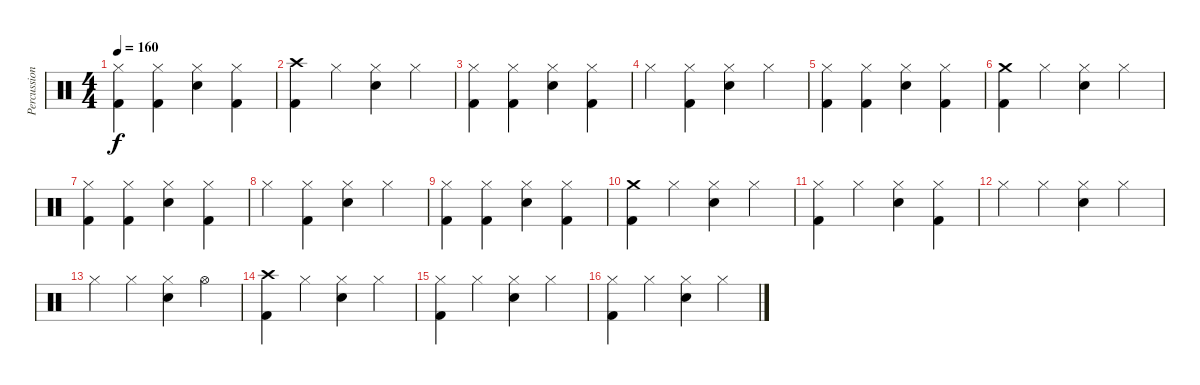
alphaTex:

\track ("Percussion" "Percussion") {instrument percussion}
\staff {score}
\articulation defaults
\ts (4 4)
\tempo 160
\clef neutral
\ks c
("Hi-Hat (closed)" "Kick (hit) 2").4{dy f} ("Hi-Hat (closed)" "Kick (hit) 2").4 ("Hi-Hat (closed)" "Snare (hit) 2").4 ("Hi-Hat (closed)" "Kick (hit) 2").4 |
("Crash high (hit)" "Kick (hit) 2").4 "Hi-Hat (closed)".4 ("Hi-Hat (closed)" "Snare (hit) 2").4 "Hi-Hat (closed)".4 |
("Hi-Hat (closed)" "Kick (hit) 2").4 ("Hi-Hat (closed)" "Kick (hit) 2").4 ("Hi-Hat (closed)" "Snare (hit) 2").4 ("Hi-Hat (closed)" "Kick (hit) 2").4 |
"Hi-Hat (closed)".4 ("Hi-Hat (closed)" "Kick (hit) 2").4 ("Hi-Hat (closed)" "Snare (hit) 2").4 "Hi-Hat (closed)".4 |
("Hi-Hat (closed)" "Kick (hit) 2").4 ("Hi-Hat (closed)" "Kick (hit) 2").4 ("Hi-Hat (closed)" "Snare (hit) 2").4 ("Hi-Hat (closed)" "Kick (hit) 2").4 |
("Crash medium (hit)" "Kick (hit) 2").4 "Hi-Hat (closed)".4 ("Hi-Hat (closed)" "Snare (hit) 2").4 "Hi-Hat (closed)".4 |
("Hi-Hat (closed)" "Kick (hit) 2").4 ("Hi-Hat (closed)" "Kick (hit) 2").4 ("Hi-Hat (closed)" "Snare (hit) 2").4 ("Hi-Hat (closed)" "Kick (hit) 2").4 |
"Hi-Hat (closed)".4 ("Hi-Hat (closed)" "Kick (hit) 2").4 ("Hi-Hat (closed)" "Snare (hit) 2").4 "Hi-Hat (closed)".4 |
("Hi-Hat (closed)" "Kick (hit) 2").4 ("Hi-Hat (closed)" "Kick (hit) 2").4 ("Hi-Hat (closed)" "Snare (hit) 2").4 ("Hi-Hat (closed)" "Kick (hit) 2").4 |
("Crash medium (hit)" "Kick (hit) 2").4 "Hi-Hat (closed)".4 ("Hi-Hat (closed)" "Snare (hit) 2").4 "Hi-Hat (closed)".4 |
("Hi-Hat (closed)" "Kick (hit) 2").4 "Hi-Hat (closed)".4 ("Hi-Hat (closed)" "Snare (hit) 2").4 ("Hi-Hat (closed)" "Kick (hit) 2").4 |
"Hi-Hat (closed)".4 "Hi-Hat (closed)".4 ("Hi-Hat (closed)" "Snare (hit) 2").4 "Hi-Hat (closed)".4 |
"Hi-Hat (closed)".4 "Hi-Hat (closed)".4 ("Hi-Hat (closed)" "Snare (hit) 2").4 "Hi-Hat (open)".4 |
("Crash high (hit)" "Kick (hit) 2").4 "Hi-Hat (closed)".4 ("Hi-Hat (closed)" "Snare (hit) 2").4 "Hi-Hat (closed)".4 |
("Hi-Hat (closed)" "Kick (hit) 2").4 "Hi-Hat (closed)".4 ("Hi-Hat (closed)" "Snare (hit) 2").4 "Hi-Hat (closed)".4 |
("Hi-Hat (closed)" "Kick (hit) 2").4 "Hi-Hat (closed)".4 ("Hi-Hat (closed)" "Snare (hit) 2").4 "Hi-Hat (closed)".4
